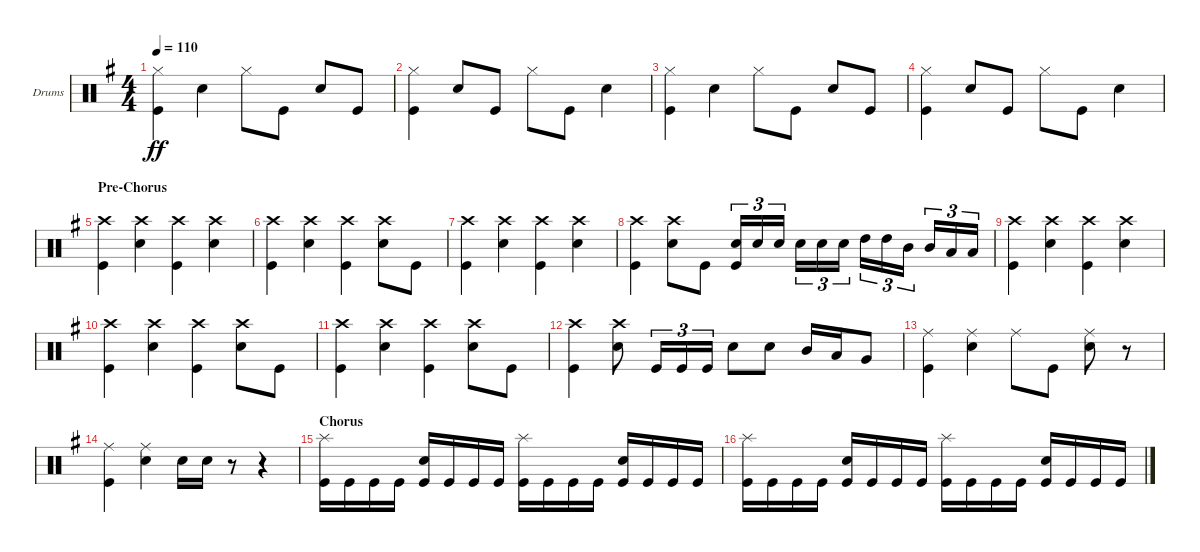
\defaultSystemsLayout 4
\bracketExtendMode groupsimilarinstruments
\firstSystemTrackNameOrientation horizontal
\otherSystemsTrackNameOrientation horizontal
\track ("Drums" "Drums") {instrument percussion}
\staff {score}
\articulation defaults
\ts (4 4)
\tempo 110
\clef neutral
\ks eminor
("Kick (hit)" "Hi-Hat (closed)").4{dy ff} "Snare (hit) 2".4 "Hi-Hat (closed)".8 "Kick (hit)".8 "Snare (hit) 2".8 "Kick (hit)".8 |
("Kick (hit)" "Hi-Hat (closed)").4 "Snare (hit) 2".8 "Kick (hit)".8 "Hi-Hat (closed)".8 "Kick (hit)".8 "Snare (hit) 2".4 |
("Kick (hit)" "Hi-Hat (closed)").4 "Snare (hit) 2".4 "Hi-Hat (closed)".8 "Kick (hit)".8 "Snare (hit) 2".8 "Kick (hit)".8 |
("Kick (hit)" "Hi-Hat (closed)").4 "Snare (hit) 2".8 "Kick (hit)".8 "Hi-Hat (closed)".8 "Kick (hit)".8 "Snare (hit) 2".4 |
\section ("" "Pre-Chorus")
("Kick (hit)" "Crash high (hit)").4 ("Snare (hit) 2" "Crash high (hit)").4 ("Kick (hit)" "Crash high (hit)").4 ("Snare (hit) 2" "Crash high (hit)").4 |
("Kick (hit)" "Crash high (hit)").4 ("Crash high (hit)" "Snare (hit) 2").4 ("Kick (hit)" "Crash high (hit)").4 ("Crash high (hit)" "Snare (hit) 2").8 "Kick (hit)".8 |
("Kick (hit)" "Crash high (hit)").4 ("Crash high (hit)" "Snare (hit) 2").4 ("Kick (hit)" "Crash high (hit)").4 ("Crash high (hit)" "Snare (hit) 2").4 |
("Kick (hit)" "Crash high (hit)").4 ("Crash high (hit)" "Snare (hit) 2").8 "Kick (hit)".8 ("Snare (hit) 2" "Kick (hit)").16{tu (3 2)} "Snare (hit) 2".16{tu (3 2)} "Snare (hit) 2".16{tu (3 2)} "Snare (hit) 2".16{tu (3 2)} "Snare (hit) 2".16{tu (3 2)} "Snare (hit) 2".16{tu (3 2)} "High Tom (hit)".16{tu (3 2)} "High Tom (hit)".16{tu (3 2)} "Mid Tom (hit)".16{tu (3 2)} "Mid Tom (hit)".16{tu (3 2)} "Low Tom (hit)".16{tu (3 2)} "Low Tom (hit)".16{tu (3 2)} |
("Kick (hit)" "Crash high (hit)").4 ("Snare (hit) 2" "Crash high (hit)").4 ("Kick (hit)" "Crash high (hit)").4 ("Snare (hit) 2" "Crash high (hit)").4 |
("Kick (hit)" "Crash high (hit)").4 ("Crash high (hit)" "Snare (hit) 2").4 ("Kick (hit)" "Crash high (hit)").4 ("Crash high (hit)" "Snare (hit) 2").8 "Kick (hit)".8 |
("Kick (hit)" "Crash high (hit)").4 ("Crash high (hit)" "Snare (hit) 2").4 ("Kick (hit)" "Crash high (hit)").4 ("Crash high (hit)" "Snare (hit) 2").8 "Kick (hit)".8 |
("Kick (hit)" "Crash high (hit)").4 ("Crash high (hit)" "Snare (hit) 2").8 "Kick (hit)".16{tu (3 2)} "Kick (hit)".16{tu (3 2)} "Kick (hit)".16{tu (3 2)} "Snare (hit) 2".8 "Snare (hit) 2".8 "Mid Tom (hit)".16 "Low Tom (hit)".16 "Very Low Tom (hit)".8 |
("Kick (hit)" "Ride (middle)").4 ("Snare (hit) 2" "Ride (middle)").4 "Ride (middle)".8 "Kick (hit)".8 ("Snare (hit) 2" "Ride (middle)").8 r.8 |
("Kick (hit)" "Ride (middle)").4 ("Snare (hit) 2" "Ride (middle)").4 "Snare (hit) 2".16 "Snare (hit) 2".16 r.8 r.4 |
\section ("" "Chorus")
("Kick (hit)" "Splash (hit)").16 "Kick (hit)".16 "Kick (hit)".16 "Kick (hit)".16 ("Kick (hit)" "Snare (hit) 2").16 "Kick (hit)".16 "Kick (hit)".16 "Kick (hit)".16 ("Kick (hit)" "Splash (hit)").16 "Kick (hit)".16 "Kick (hit)".16 "Kick (hit)".16 ("Kick (hit)" "Snare (hit) 2").16 "Kick (hit)".16 "Kick (hit)".16 "Kick (hit)".16 |
("Kick (hit)" "Splash (hit)").16 "Kick (hit)".16 "Kick (hit)".16 "Kick (hit)".16 ("Kick (hit)" "Snare (hit) 2").16 "Kick (hit)".16 "Kick (hit)".16 "Kick (hit)".16 ("Kick (hit)" "Splash (hit)").16 "Kick (hit)".16 "Kick (hit)".16 "Kick (hit)".16 ("Kick (hit)" "Snare (hit) 2").16 "Kick (hit)".16 "Kick (hit)".16 "Kick (hit)".16
